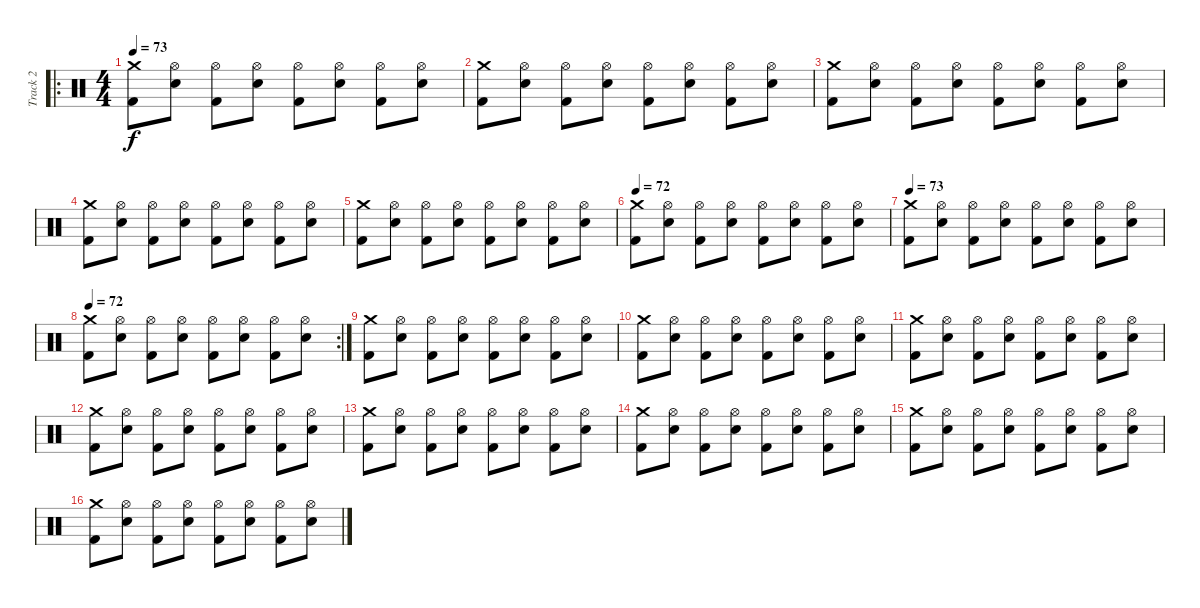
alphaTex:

\track ("Track 2" "Track 2") {instrument percussion}
\staff {score}
\articulation defaults
\ro
\ts (4 4)
\tempo 73
\clef neutral
\ks c
("Kick (hit) 2" "Crash medium (hit)").8{dy f} ("Snare (hit) 2" "Hi-Hat (open)").8 ("Kick (hit) 2" "Hi-Hat (open)").8 ("Snare (hit) 2" "Hi-Hat (open)").8 ("Kick (hit) 2" "Hi-Hat (open)").8 ("Snare (hit) 2" "Hi-Hat (open)").8 ("Kick (hit) 2" "Hi-Hat (open)").8 ("Snare (hit) 2" "Hi-Hat (open)").8 |
("Kick (hit) 2" "Crash medium (hit)").8 ("Snare (hit) 2" "Hi-Hat (open)").8 ("Kick (hit) 2" "Hi-Hat (open)").8 ("Snare (hit) 2" "Hi-Hat (open)").8 ("Kick (hit) 2" "Hi-Hat (open)").8 ("Snare (hit) 2" "Hi-Hat (open)").8 ("Kick (hit) 2" "Hi-Hat (open)").8 ("Snare (hit) 2" "Hi-Hat (open)").8 |
("Kick (hit) 2" "Crash medium (hit)").8 ("Snare (hit) 2" "Hi-Hat (open)").8 ("Kick (hit) 2" "Hi-Hat (open)").8 ("Snare (hit) 2" "Hi-Hat (open)").8 ("Kick (hit) 2" "Hi-Hat (open)").8 ("Snare (hit) 2" "Hi-Hat (open)").8 ("Kick (hit) 2" "Hi-Hat (open)").8 ("Snare (hit) 2" "Hi-Hat (open)").8 |
("Kick (hit) 2" "Crash medium (hit)").8 ("Snare (hit) 2" "Hi-Hat (open)").8 ("Kick (hit) 2" "Hi-Hat (open)").8 ("Snare (hit) 2" "Hi-Hat (open)").8 ("Kick (hit) 2" "Hi-Hat (open)").8 ("Snare (hit) 2" "Hi-Hat (open)").8 ("Kick (hit) 2" "Hi-Hat (open)").8 ("Snare (hit) 2" "Hi-Hat (open)").8 |
("Kick (hit) 2" "Crash medium (hit)").8 ("Snare (hit) 2" "Hi-Hat (open)").8 ("Kick (hit) 2" "Hi-Hat (open)").8 ("Snare (hit) 2" "Hi-Hat (open)").8 ("Kick (hit) 2" "Hi-Hat (open)").8 ("Snare (hit) 2" "Hi-Hat (open)").8 ("Kick (hit) 2" "Hi-Hat (open)").8 ("Snare (hit) 2" "Hi-Hat (open)").8 |
\tempo 72
("Kick (hit) 2" "Crash medium (hit)").8 ("Snare (hit) 2" "Hi-Hat (open)").8 ("Kick (hit) 2" "Hi-Hat (open)").8 ("Snare (hit) 2" "Hi-Hat (open)").8 ("Kick (hit) 2" "Hi-Hat (open)").8 ("Snare (hit) 2" "Hi-Hat (open)").8 ("Kick (hit) 2" "Hi-Hat (open)").8 ("Snare (hit) 2" "Hi-Hat (open)").8 |
\tempo 73
("Kick (hit) 2" "Crash medium (hit)").8 ("Snare (hit) 2" "Hi-Hat (open)").8 ("Kick (hit) 2" "Hi-Hat (open)").8 ("Snare (hit) 2" "Hi-Hat (open)").8 ("Kick (hit) 2" "Hi-Hat (open)").8 ("Snare (hit) 2" "Hi-Hat (open)").8 ("Kick (hit) 2" "Hi-Hat (open)").8 ("Snare (hit) 2" "Hi-Hat (open)").8 |
\rc 2
\tempo 72
("Kick (hit) 2" "Crash medium (hit)").8 ("Snare (hit) 2" "Hi-Hat (open)").8 ("Kick (hit) 2" "Hi-Hat (open)").8 ("Snare (hit) 2" "Hi-Hat (open)").8 ("Kick (hit) 2" "Hi-Hat (open)").8 ("Snare (hit) 2" "Hi-Hat (open)").8 ("Kick (hit) 2" "Hi-Hat (open)").8 ("Snare (hit) 2" "Hi-Hat (open)").8 |
("Kick (hit) 2" "Crash medium (hit)").8 ("Snare (hit) 2" "Hi-Hat (open)").8 ("Kick (hit) 2" "Hi-Hat (open)").8 ("Snare (hit) 2" "Hi-Hat (open)").8 ("Kick (hit) 2" "Hi-Hat (open)").8 ("Snare (hit) 2" "Hi-Hat (open)").8 ("Kick (hit) 2" "Hi-Hat (open)").8 ("Snare (hit) 2" "Hi-Hat (open)").8 |
("Kick (hit) 2" "Crash medium (hit)").8 ("Snare (hit) 2" "Hi-Hat (open)").8 ("Kick (hit) 2" "Hi-Hat (open)").8 ("Snare (hit) 2" "Hi-Hat (open)").8 ("Kick (hit) 2" "Hi-Hat (open)").8 ("Snare (hit) 2" "Hi-Hat (open)").8 ("Kick (hit) 2" "Hi-Hat (open)").8 ("Snare (hit) 2" "Hi-Hat (open)").8 |
("Kick (hit) 2" "Crash medium (hit)").8 ("Snare (hit) 2" "Hi-Hat (open)").8 ("Kick (hit) 2" "Hi-Hat (open)").8 ("Snare (hit) 2" "Hi-Hat (open)").8 ("Kick (hit) 2" "Hi-Hat (open)").8 ("Snare (hit) 2" "Hi-Hat (open)").8 ("Kick (hit) 2" "Hi-Hat (open)").8 ("Snare (hit) 2" "Hi-Hat (open)").8 |
("Kick (hit) 2" "Crash medium (hit)").8 ("Snare (hit) 2" "Hi-Hat (open)").8 ("Kick (hit) 2" "Hi-Hat (open)").8 ("Snare (hit) 2" "Hi-Hat (open)").8 ("Kick (hit) 2" "Hi-Hat (open)").8 ("Snare (hit) 2" "Hi-Hat (open)").8 ("Kick (hit) 2" "Hi-Hat (open)").8 ("Snare (hit) 2" "Hi-Hat (open)").8 |
("Kick (hit) 2" "Crash medium (hit)").8 ("Snare (hit) 2" "Hi-Hat (open)").8 ("Kick (hit) 2" "Hi-Hat (open)").8 ("Snare (hit) 2" "Hi-Hat (open)").8 ("Kick (hit) 2" "Hi-Hat (open)").8 ("Snare (hit) 2" "Hi-Hat (open)").8 ("Kick (hit) 2" "Hi-Hat (open)").8 ("Snare (hit) 2" "Hi-Hat (open)").8 |
("Kick (hit) 2" "Crash medium (hit)").8 ("Snare (hit) 2" "Hi-Hat (open)").8 ("Kick (hit) 2" "Hi-Hat (open)").8 ("Snare (hit) 2" "Hi-Hat (open)").8 ("Kick (hit) 2" "Hi-Hat (open)").8 ("Snare (hit) 2" "Hi-Hat (open)").8 ("Kick (hit) 2" "Hi-Hat (open)").8 ("Snare (hit) 2" "Hi-Hat (open)").8 |
("Kick (hit) 2" "Crash medium (hit)").8 ("Snare (hit) 2" "Hi-Hat (open)").8 ("Kick (hit) 2" "Hi-Hat (open)").8 ("Snare (hit) 2" "Hi-Hat (open)").8 ("Kick (hit) 2" "Hi-Hat (open)").8 ("Snare (hit) 2" "Hi-Hat (open)").8 ("Kick (hit) 2" "Hi-Hat (open)").8 ("Snare (hit) 2" "Hi-Hat (open)").8 |
("Kick (hit) 2" "Crash medium (hit)").8 ("Snare (hit) 2" "Hi-Hat (open)").8 ("Kick (hit) 2" "Hi-Hat (open)").8 ("Snare (hit) 2" "Hi-Hat (open)").8 ("Kick (hit) 2" "Hi-Hat (open)").8 ("Snare (hit) 2" "Hi-Hat (open)").8 ("Kick (hit) 2" "Hi-Hat (open)").8 ("Snare (hit) 2" "Hi-Hat (open)").8
